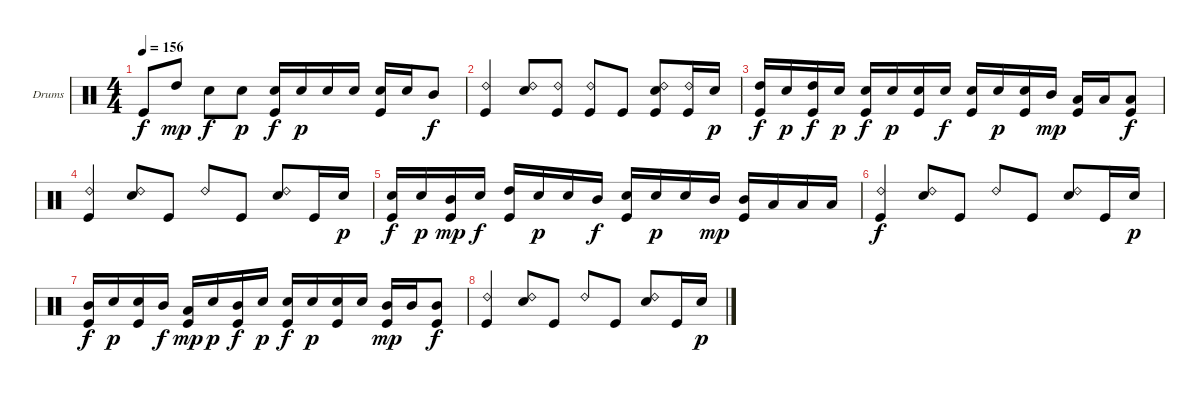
\bracketExtendMode groupsimilarinstruments
\firstSystemTrackNameOrientation horizontal
\otherSystemsTrackNameOrientation horizontal
\track ("Drumkit" "Drums") {instrument percussion}
\staff {score}
\articulation defaults
\ts (4 4)
\tempo 156
\clef neutral
\ks c "Kick (hit)".8{dy f} "High Tom (hit)".8{dy mp} "Snare (hit) 2".8{dy f} "Snare (hit) 2".8{dy p}
("Snare (hit) 2" "Kick (hit)").16{dy f} "Snare (hit) 2".16{dy p} "Snare (hit) 2".16 "Snare (hit) 2".16 ("Snare (hit) 2" "Kick (hit)").16 "Snare (hit) 2".16 "Mid Tom (hit)".8{dy f} |
("Ride (bell) 2" "Kick (hit)").4 ("Ride (bell) 2" "Snare (hit) 2").8 ("Ride (bell) 2" "Kick (hit)").8 ("Ride (bell) 2" "Kick (hit)").8 "Kick (hit)".8 ("Ride (bell) 2" "Snare (hit) 2" "Kick (hit)").8 ("Ride (bell) 2" "Kick (hit)").16 "Snare (hit) 2".16{dy p} |
("High Tom (hit)" "Kick (hit)").16{dy f} "Snare (hit) 2".16{dy p} ("High Tom (hit)" "Kick (hit)").16{dy f} "Snare (hit) 2".16{dy p} ("Snare (hit) 2" "Kick (hit)").16{dy f} "Snare (hit) 2".16{dy p} ("Snare (hit) 2" "Kick (hit)").16 "Snare (hit) 2".16{dy f} ("Snare (hit) 2" "Kick (hit)").16 "Snare (hit) 2".16{dy p} ("Snare (hit) 2" "Kick (hit)").16 "Mid Tom (hit)".16{dy mp} ("Low Tom (hit)" "Kick (hit)").16 "Low Tom (hit)".16 ("Low Tom (hit)" "Kick (hit)").8{dy f} |
("Ride (bell) 2" "Kick (hit)").4 ("Ride (bell) 2" "Snare (hit) 2").8 "Kick (hit)".8 "Ride (bell) 2".8 "Kick (hit)".8 ("Ride (bell) 2" "Snare (hit) 2").8 "Kick (hit)".16 "Snare (hit) 2".16{dy p} |
("Snare (hit) 2" "Kick (hit)").16{dy f} "Snare (hit) 2".16{dy p} ("Mid Tom (hit)" "Kick (hit)").16{dy mp} "Snare (hit) 2".16{dy f} ("High Tom (hit)" "Kick (hit)").16 "Snare (hit) 2".16{dy p} "Snare (hit) 2".16 "Mid Tom (hit)".16{dy f} ("Snare (hit) 2" "Kick (hit)").16 "Snare (hit) 2".16{dy p} "Snare (hit) 2".16 "Mid Tom (hit)".16{dy mp} ("Mid Tom (hit)" "Kick (hit)").16 "Low Tom (hit)".16 "Low Tom (hit)".16 "Low Tom (hit)".16 |
("Ride (bell) 2" "Kick (hit)").4{dy f} ("Ride (bell) 2" "Snare (hit) 2").8 "Kick (hit)".8 "Ride (bell) 2".8 "Kick (hit)".8 ("Ride (bell) 2" "Snare (hit) 2").8 "Kick (hit)".16 "Snare (hit) 2".16{dy p} |
("Mid Tom (hit)" "Kick (hit)").16{dy f} "Snare (hit) 2".16{dy p} ("Snare (hit) 2" "Kick (hit)").16 "Mid Tom (hit)".16{dy f} ("Low Tom (hit)" "Kick (hit)").16{dy mp} "Snare (hit) 2".16{dy p} ("Mid Tom (hit)" "Kick (hit)").16{dy f} "Snare (hit) 2".16{dy p} ("Snare (hit) 2" "Kick (hit)").16{dy f} "Snare (hit) 2".16{dy p} ("Snare (hit) 2" "Kick (hit)").16 "Snare (hit) 2".16 ("Mid Tom (hit)" "Kick (hit)").16{dy mp} "Mid Tom (hit)".16 ("Mid Tom (hit)" "Kick (hit)").8{dy f} |
("Ride (bell) 2" "Kick (hit)").4 ("Ride (bell) 2" "Snare (hit) 2").8 "Kick (hit)".8 "Ride (bell) 2".8 "Kick (hit)".8 ("Ride (bell) 2" "Snare (hit) 2").8 "Kick (hit)".16 "Snare (hit) 2".16{dy p}
